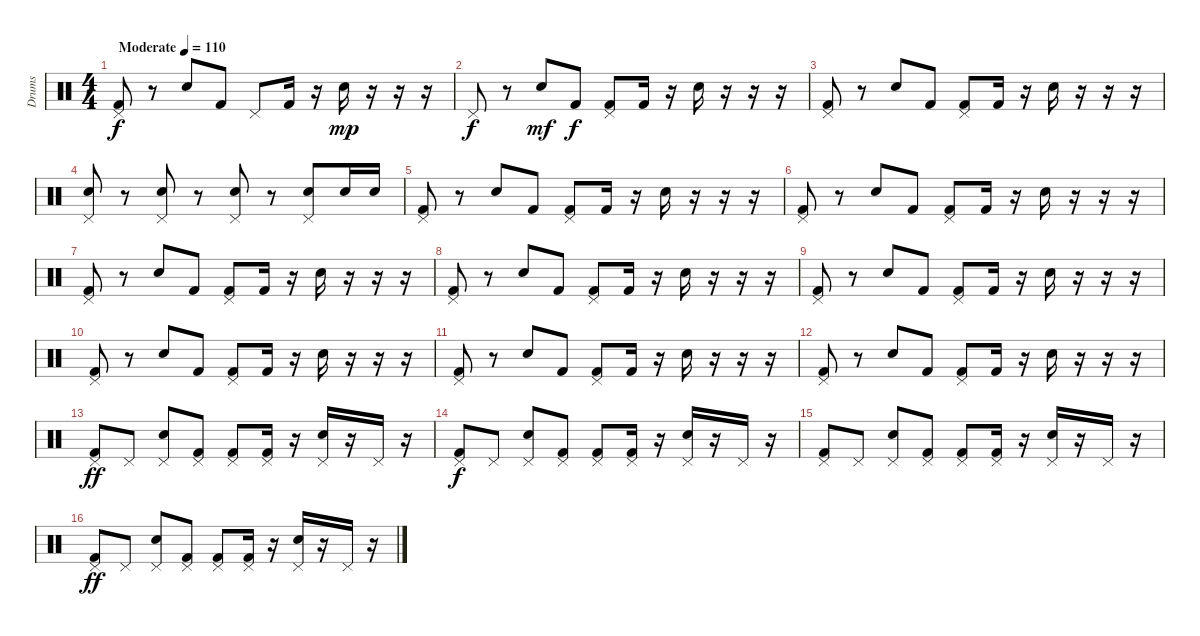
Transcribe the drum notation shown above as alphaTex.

\track ("Drums" "Drums") {instrument percussion}
\staff {score}
\articulation defaults
\ts (4 4)
\tempo (110 "Moderate")
\clef neutral
\ks c
("Pedal Hi-Hat (hit)" "Kick (hit) 2").8{dy f} r.8 "Electric Snare (hit)".8 "Kick (hit) 2".8 "Pedal Hi-Hat (hit)".8 "Kick (hit) 2".16 r.16 "Electric Snare (hit)".16{dy mp} r.16 r.16 r.16 |
"Pedal Hi-Hat (hit)".8{dy f} r.8 "Electric Snare (hit)".8{dy mf} "Kick (hit) 2".8{dy f} ("Pedal Hi-Hat (hit)" "Kick (hit) 2").8 "Kick (hit) 2".16 r.16 "Electric Snare (hit)".16 r.16 r.16 r.16 |
("Pedal Hi-Hat (hit)" "Kick (hit) 2").8 r.8 "Electric Snare (hit)".8 "Kick (hit) 2".8 ("Pedal Hi-Hat (hit)" "Kick (hit) 2").8 "Kick (hit) 2".16 r.16 "Electric Snare (hit)".16 r.16 r.16 r.16 |
("Pedal Hi-Hat (hit)" "Electric Snare (hit)").8 r.8 ("Pedal Hi-Hat (hit)" "Electric Snare (hit)").8 r.8 ("Pedal Hi-Hat (hit)" "Electric Snare (hit)").8 r.8 ("Pedal Hi-Hat (hit)" "Electric Snare (hit)").8 "Electric Snare (hit)".16 "Electric Snare (hit)".16 |
("Pedal Hi-Hat (hit)" "Kick (hit) 2").8 r.8 "Electric Snare (hit)".8 "Kick (hit) 2".8 ("Pedal Hi-Hat (hit)" "Kick (hit) 2").8 "Kick (hit) 2".16 r.16 "Electric Snare (hit)".16 r.16 r.16 r.16 |
("Pedal Hi-Hat (hit)" "Kick (hit) 2").8 r.8 "Electric Snare (hit)".8 "Kick (hit) 2".8 ("Pedal Hi-Hat (hit)" "Kick (hit) 2").8 "Kick (hit) 2".16 r.16 "Electric Snare (hit)".16 r.16 r.16 r.16 |
("Pedal Hi-Hat (hit)" "Kick (hit) 2").8 r.8 "Electric Snare (hit)".8 "Kick (hit) 2".8 ("Pedal Hi-Hat (hit)" "Kick (hit) 2").8 "Kick (hit) 2".16 r.16 "Electric Snare (hit)".16 r.16 r.16 r.16 |
("Pedal Hi-Hat (hit)" "Kick (hit) 2").8 r.8 "Electric Snare (hit)".8 "Kick (hit) 2".8 ("Pedal Hi-Hat (hit)" "Kick (hit) 2").8 "Kick (hit) 2".16 r.16 "Electric Snare (hit)".16 r.16 r.16 r.16 |
("Pedal Hi-Hat (hit)" "Kick (hit) 2").8 r.8 "Electric Snare (hit)".8 "Kick (hit) 2".8 ("Pedal Hi-Hat (hit)" "Kick (hit) 2").8 "Kick (hit) 2".16 r.16 "Electric Snare (hit)".16 r.16 r.16 r.16 |
("Pedal Hi-Hat (hit)" "Kick (hit) 2").8 r.8 "Electric Snare (hit)".8 "Kick (hit) 2".8 ("Pedal Hi-Hat (hit)" "Kick (hit) 2").8 "Kick (hit) 2".16 r.16 "Electric Snare (hit)".16 r.16 r.16 r.16 |
("Pedal Hi-Hat (hit)" "Kick (hit) 2").8 r.8 "Electric Snare (hit)".8 "Kick (hit) 2".8 ("Pedal Hi-Hat (hit)" "Kick (hit) 2").8 "Kick (hit) 2".16 r.16 "Electric Snare (hit)".16 r.16 r.16 r.16 |
("Pedal Hi-Hat (hit)" "Kick (hit) 2").8 r.8 "Electric Snare (hit)".8 "Kick (hit) 2".8 ("Pedal Hi-Hat (hit)" "Kick (hit) 2").8 "Kick (hit) 2".16 r.16 "Electric Snare (hit)".16 r.16 r.16 r.16 |
("Pedal Hi-Hat (hit)" "Kick (hit) 2").8{dy ff} "Pedal Hi-Hat (hit)".8 ("Pedal Hi-Hat (hit)" "Electric Snare (hit)").8 ("Pedal Hi-Hat (hit)" "Kick (hit) 2").8 ("Pedal Hi-Hat (hit)" "Kick (hit) 2").8 ("Pedal Hi-Hat (hit)" "Kick (hit) 2").16 r.16 ("Pedal Hi-Hat (hit)" "Electric Snare (hit)").16 r.16 "Pedal Hi-Hat (hit)".16 r.16 |
("Pedal Hi-Hat (hit)" "Kick (hit) 2").8{dy f} "Pedal Hi-Hat (hit)".8 ("Pedal Hi-Hat (hit)" "Electric Snare (hit)").8 ("Pedal Hi-Hat (hit)" "Kick (hit) 2").8 ("Pedal Hi-Hat (hit)" "Kick (hit) 2").8 ("Pedal Hi-Hat (hit)" "Kick (hit) 2").16 r.16 ("Pedal Hi-Hat (hit)" "Electric Snare (hit)").16 r.16 "Pedal Hi-Hat (hit)".16 r.16 |
("Pedal Hi-Hat (hit)" "Kick (hit) 2").8 "Pedal Hi-Hat (hit)".8 ("Pedal Hi-Hat (hit)" "Electric Snare (hit)").8 ("Pedal Hi-Hat (hit)" "Kick (hit) 2").8 ("Pedal Hi-Hat (hit)" "Kick (hit) 2").8 ("Pedal Hi-Hat (hit)" "Kick (hit) 2").16 r.16 ("Pedal Hi-Hat (hit)" "Electric Snare (hit)").16 r.16 "Pedal Hi-Hat (hit)".16 r.16 |
("Pedal Hi-Hat (hit)" "Kick (hit) 2").8{dy ff} "Pedal Hi-Hat (hit)".8 ("Pedal Hi-Hat (hit)" "Electric Snare (hit)").8 ("Pedal Hi-Hat (hit)" "Kick (hit) 2").8 ("Pedal Hi-Hat (hit)" "Kick (hit) 2").8 ("Pedal Hi-Hat (hit)" "Kick (hit) 2").16 r.16 ("Pedal Hi-Hat (hit)" "Electric Snare (hit)").16 r.16 "Pedal Hi-Hat (hit)".16 r.16
